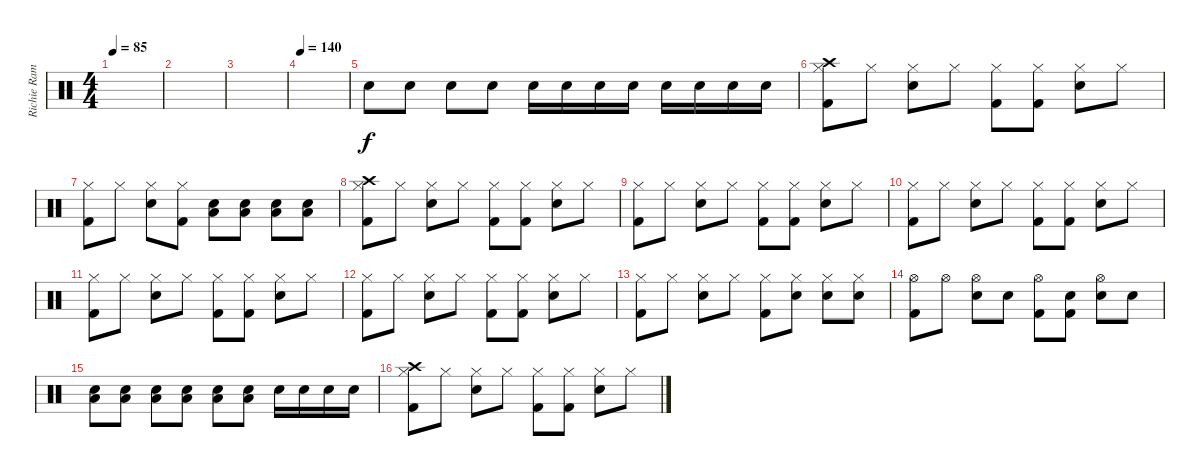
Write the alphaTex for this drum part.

\track ("Richie Ramone - Drums" "Richie Ram") {instrument percussion}
\staff {score}
\articulation defaults
\ts (4 4)
\tempo 85
\clef neutral
\ks c
|
|
|
\tempo 140
|
"Snare (hit)"{x}.8 "Snare (hit)"{x}.8 "Snare (hit)"{x}.8 "Snare (hit)"{x}.8 "Electric Snare (hit)".16 "Electric Snare (hit)".16 "Electric Snare (hit)".16 "Electric Snare (hit)".16 "Electric Snare (hit)".16 "Electric Snare (hit)".16 "Electric Snare (hit)".16 "Electric Snare (hit)".16 |
("Hi-Hat (closed)" "Kick (hit) 2" "Crash high (hit)").8 "Hi-Hat (closed)".8 ("Hi-Hat (closed)" "Electric Snare (hit)").8 "Hi-Hat (closed)".8 ("Hi-Hat (closed)" "Kick (hit) 2").8 ("Hi-Hat (closed)" "Kick (hit) 2").8 ("Hi-Hat (closed)" "Electric Snare (hit)").8 "Hi-Hat (closed)".8 |
("Hi-Hat (closed)" "Kick (hit) 2").8 "Hi-Hat (closed)".8 ("Hi-Hat (closed)" "Electric Snare (hit)").8 ("Hi-Hat (closed)" "Kick (hit) 2").8 ("Electric Snare (hit)" "Low Tom (hit)").8 ("Electric Snare (hit)" "Low Tom (hit)").8 ("Electric Snare (hit)" "Low Tom (hit)").8 ("Electric Snare (hit)" "Low Tom (hit)").8 |
("Hi-Hat (closed)" "Kick (hit) 2" "Crash high (hit)").8 "Hi-Hat (closed)".8 ("Hi-Hat (closed)" "Electric Snare (hit)").8 "Hi-Hat (closed)".8 ("Hi-Hat (closed)" "Kick (hit) 2").8 ("Hi-Hat (closed)" "Kick (hit) 2").8 ("Hi-Hat (closed)" "Electric Snare (hit)").8 "Hi-Hat (closed)".8 |
("Hi-Hat (closed)" "Kick (hit) 2").8 "Hi-Hat (closed)".8 ("Hi-Hat (closed)" "Electric Snare (hit)").8 "Hi-Hat (closed)".8 ("Hi-Hat (closed)" "Kick (hit) 2").8 ("Hi-Hat (closed)" "Kick (hit) 2").8 ("Hi-Hat (closed)" "Electric Snare (hit)").8 "Hi-Hat (closed)".8 |
("Hi-Hat (closed)" "Kick (hit) 2").8 "Hi-Hat (closed)".8 ("Hi-Hat (closed)" "Electric Snare (hit)").8 "Hi-Hat (closed)".8 ("Hi-Hat (closed)" "Kick (hit) 2").8 ("Hi-Hat (closed)" "Kick (hit) 2").8 ("Hi-Hat (closed)" "Electric Snare (hit)").8 "Hi-Hat (closed)".8 |
("Hi-Hat (closed)" "Kick (hit) 2").8 "Hi-Hat (closed)".8 ("Hi-Hat (closed)" "Electric Snare (hit)").8 "Hi-Hat (closed)".8 ("Hi-Hat (closed)" "Kick (hit) 2").8 ("Hi-Hat (closed)" "Kick (hit) 2").8 ("Hi-Hat (closed)" "Electric Snare (hit)").8 "Hi-Hat (closed)".8 |
("Hi-Hat (closed)" "Kick (hit) 2").8 "Hi-Hat (closed)".8 ("Hi-Hat (closed)" "Electric Snare (hit)").8 "Hi-Hat (closed)".8 ("Hi-Hat (closed)" "Kick (hit) 2").8 ("Hi-Hat (closed)" "Kick (hit) 2").8 ("Hi-Hat (closed)" "Electric Snare (hit)").8 "Hi-Hat (closed)".8 |
("Hi-Hat (closed)" "Kick (hit) 2").8 "Hi-Hat (closed)".8 ("Hi-Hat (closed)" "Electric Snare (hit)").8 "Hi-Hat (closed)".8 ("Hi-Hat (closed)" "Kick (hit) 2").8 ("Hi-Hat (closed)" "Electric Snare (hit)").8 ("Hi-Hat (closed)" "Electric Snare (hit)").8 ("Hi-Hat (closed)" "Electric Snare (hit)").8 |
("Hi-Hat (open)" "Kick (hit) 2").8 "Hi-Hat (open)"{x}.8 ("Hi-Hat (open)" "Electric Snare (hit)").8 "Snare (hit)"{x}.8 ("Hi-Hat (open)" "Kick (hit) 2").8 ("Snare (hit)"{x} "Kick (hit) 2").8 ("Hi-Hat (open)" "Electric Snare (hit)").8 "Snare (hit)"{x}.8 |
("Electric Snare (hit)" "Low Tom (hit)").8 ("Electric Snare (hit)" "Low Tom (hit)").8 ("Electric Snare (hit)" "Low Tom (hit)").8 ("Electric Snare (hit)" "Low Tom (hit)").8 ("Electric Snare (hit)" "Low Tom (hit)").8 ("Electric Snare (hit)" "Low Tom (hit)").8 "Electric Snare (hit)".16 "Electric Snare (hit)".16 "Electric Snare (hit)".16 "Electric Snare (hit)".16 |
("Hi-Hat (closed)" "Kick (hit) 2" "Crash high (hit)").8 "Hi-Hat (closed)".8 ("Hi-Hat (closed)" "Electric Snare (hit)").8 "Hi-Hat (closed)".8 ("Hi-Hat (closed)" "Kick (hit) 2").8 ("Hi-Hat (closed)" "Kick (hit) 2").8 ("Hi-Hat (closed)" "Electric Snare (hit)").8 "Hi-Hat (closed)".8
